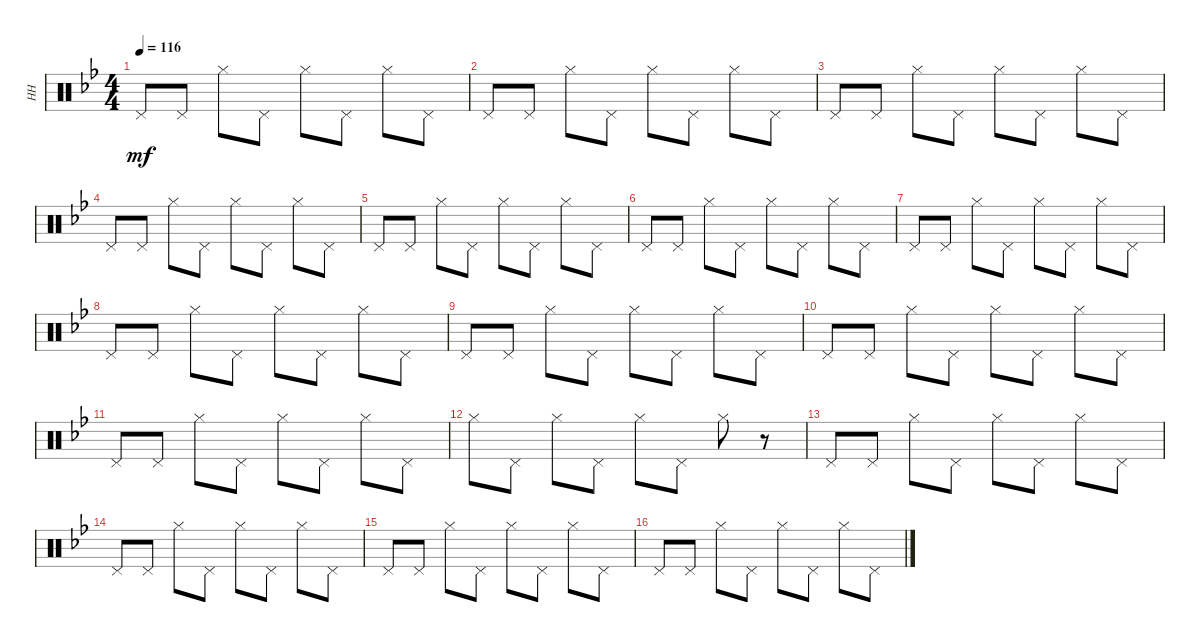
\track ("HH" "HH") {instrument percussion}
\staff {score}
\articulation defaults
\ts (4 4)
\tempo 116
\clef neutral
\ks bb "Pedal Hi-Hat (hit)".8{dy mf} "Pedal Hi-Hat (hit)".8 "Hi-Hat (closed)".8 "Pedal Hi-Hat (hit)".8 "Hi-Hat (closed)".8 "Pedal Hi-Hat (hit)".8 "Hi-Hat (closed)".8 "Pedal Hi-Hat (hit)".8
|
"Pedal Hi-Hat (hit)".8 "Pedal Hi-Hat (hit)".8 "Hi-Hat (closed)".8 "Pedal Hi-Hat (hit)".8 "Hi-Hat (closed)".8 "Pedal Hi-Hat (hit)".8 "Hi-Hat (closed)".8 "Pedal Hi-Hat (hit)".8 |
"Pedal Hi-Hat (hit)".8 "Pedal Hi-Hat (hit)".8 "Hi-Hat (closed)".8 "Pedal Hi-Hat (hit)".8 "Hi-Hat (closed)".8 "Pedal Hi-Hat (hit)".8 "Hi-Hat (closed)".8 "Pedal Hi-Hat (hit)".8 |
"Pedal Hi-Hat (hit)".8 "Pedal Hi-Hat (hit)".8 "Hi-Hat (closed)".8 "Pedal Hi-Hat (hit)".8 "Hi-Hat (closed)".8 "Pedal Hi-Hat (hit)".8 "Hi-Hat (closed)".8 "Pedal Hi-Hat (hit)".8 |
"Pedal Hi-Hat (hit)".8 "Pedal Hi-Hat (hit)".8 "Hi-Hat (closed)".8 "Pedal Hi-Hat (hit)".8 "Hi-Hat (closed)".8 "Pedal Hi-Hat (hit)".8 "Hi-Hat (closed)".8 "Pedal Hi-Hat (hit)".8 |
"Pedal Hi-Hat (hit)".8 "Pedal Hi-Hat (hit)".8 "Hi-Hat (closed)".8 "Pedal Hi-Hat (hit)".8 "Hi-Hat (closed)".8 "Pedal Hi-Hat (hit)".8 "Hi-Hat (closed)".8 "Pedal Hi-Hat (hit)".8 |
"Pedal Hi-Hat (hit)".8 "Pedal Hi-Hat (hit)".8 "Hi-Hat (closed)".8 "Pedal Hi-Hat (hit)".8 "Hi-Hat (closed)".8 "Pedal Hi-Hat (hit)".8 "Hi-Hat (closed)".8 "Pedal Hi-Hat (hit)".8 |
"Pedal Hi-Hat (hit)".8 "Pedal Hi-Hat (hit)".8 "Hi-Hat (closed)".8 "Pedal Hi-Hat (hit)".8 "Hi-Hat (closed)".8 "Pedal Hi-Hat (hit)".8 "Hi-Hat (closed)".8 "Pedal Hi-Hat (hit)".8 |
"Pedal Hi-Hat (hit)".8 "Pedal Hi-Hat (hit)".8 "Hi-Hat (closed)".8 "Pedal Hi-Hat (hit)".8 "Hi-Hat (closed)".8 "Pedal Hi-Hat (hit)".8 "Hi-Hat (closed)".8 "Pedal Hi-Hat (hit)".8 |
"Pedal Hi-Hat (hit)".8 "Pedal Hi-Hat (hit)".8 "Hi-Hat (closed)".8 "Pedal Hi-Hat (hit)".8 "Hi-Hat (closed)".8 "Pedal Hi-Hat (hit)".8 "Hi-Hat (closed)".8 "Pedal Hi-Hat (hit)".8 |
"Pedal Hi-Hat (hit)".8 "Pedal Hi-Hat (hit)".8 "Hi-Hat (closed)".8 "Pedal Hi-Hat (hit)".8 "Hi-Hat (closed)".8 "Pedal Hi-Hat (hit)".8 "Hi-Hat (closed)".8 "Pedal Hi-Hat (hit)".8 |
"Hi-Hat (closed)".8 "Pedal Hi-Hat (hit)".8 "Hi-Hat (closed)".8 "Pedal Hi-Hat (hit)".8 "Hi-Hat (closed)".8 "Pedal Hi-Hat (hit)".8 "Hi-Hat (closed)".8 r.8 |
"Pedal Hi-Hat (hit)".8 "Pedal Hi-Hat (hit)".8 "Hi-Hat (closed)".8 "Pedal Hi-Hat (hit)".8 "Hi-Hat (closed)".8 "Pedal Hi-Hat (hit)".8 "Hi-Hat (closed)".8 "Pedal Hi-Hat (hit)".8 |
"Pedal Hi-Hat (hit)".8 "Pedal Hi-Hat (hit)".8 "Hi-Hat (closed)".8 "Pedal Hi-Hat (hit)".8 "Hi-Hat (closed)".8 "Pedal Hi-Hat (hit)".8 "Hi-Hat (closed)".8 "Pedal Hi-Hat (hit)".8 |
"Pedal Hi-Hat (hit)".8 "Pedal Hi-Hat (hit)".8 "Hi-Hat (closed)".8 "Pedal Hi-Hat (hit)".8 "Hi-Hat (closed)".8 "Pedal Hi-Hat (hit)".8 "Hi-Hat (closed)".8 "Pedal Hi-Hat (hit)".8 |
"Pedal Hi-Hat (hit)".8 "Pedal Hi-Hat (hit)".8 "Hi-Hat (closed)".8 "Pedal Hi-Hat (hit)".8 "Hi-Hat (closed)".8 "Pedal Hi-Hat (hit)".8 "Hi-Hat (closed)".8 "Pedal Hi-Hat (hit)".8
